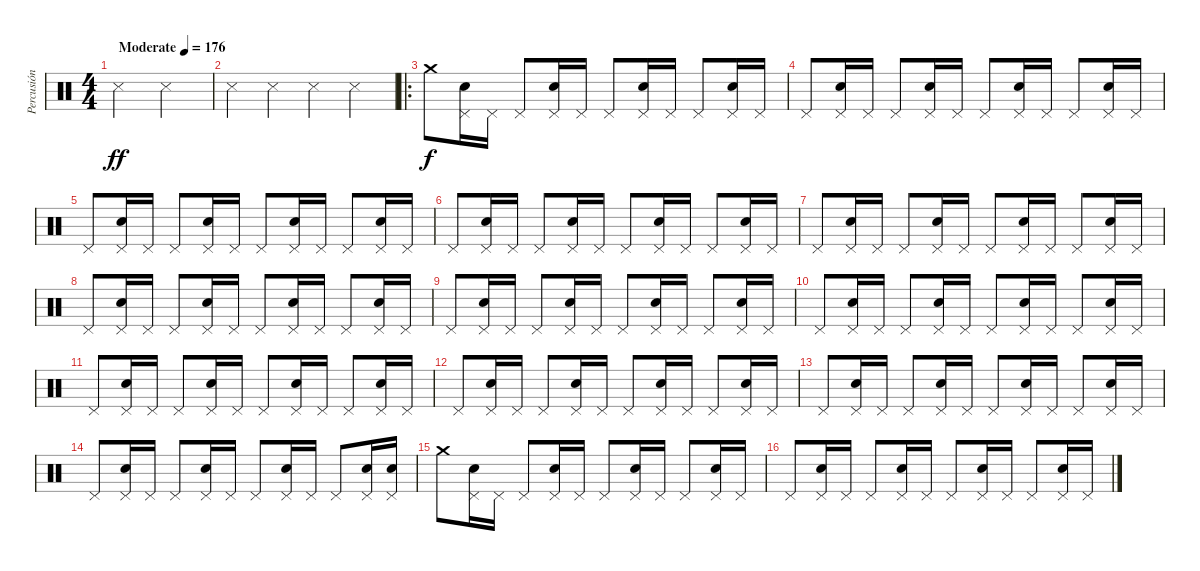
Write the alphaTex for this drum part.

\track ("Percusión" "Percusión") {instrument percussion}
\staff {score}
\articulation defaults
\ts (4 4)
\tempo (176 "Moderate")
\clef neutral
\ks c "Metronome (hit)".2{dy ff} "Metronome (hit)".2
|
"Metronome (hit)".4 "Metronome (hit)".4 "Metronome (hit)".4 "Metronome (hit)".4 |
\ro "Crash medium (hit)".8{dy f}
("Pedal Hi-Hat (hit)" "Snare (hit) 2").16 "Pedal Hi-Hat (hit)".16 "Pedal Hi-Hat (hit)".8 ("Pedal Hi-Hat (hit)" "Snare (hit) 2").16 "Pedal Hi-Hat (hit)".16 "Pedal Hi-Hat (hit)".8 ("Pedal Hi-Hat (hit)" "Snare (hit) 2").16 "Pedal Hi-Hat (hit)".16 "Pedal Hi-Hat (hit)".8 ("Pedal Hi-Hat (hit)" "Snare (hit) 2").16 "Pedal Hi-Hat (hit)".16 |
"Pedal Hi-Hat (hit)".8 ("Pedal Hi-Hat (hit)" "Snare (hit) 2").16 "Pedal Hi-Hat (hit)".16 "Pedal Hi-Hat (hit)".8 ("Pedal Hi-Hat (hit)" "Snare (hit) 2").16 "Pedal Hi-Hat (hit)".16 "Pedal Hi-Hat (hit)".8 ("Pedal Hi-Hat (hit)" "Snare (hit) 2").16 "Pedal Hi-Hat (hit)".16 "Pedal Hi-Hat (hit)".8 ("Pedal Hi-Hat (hit)" "Snare (hit) 2").16 "Pedal Hi-Hat (hit)".16 |
"Pedal Hi-Hat (hit)".8 ("Pedal Hi-Hat (hit)" "Snare (hit) 2").16 "Pedal Hi-Hat (hit)".16 "Pedal Hi-Hat (hit)".8 ("Pedal Hi-Hat (hit)" "Snare (hit) 2").16 "Pedal Hi-Hat (hit)".16 "Pedal Hi-Hat (hit)".8 ("Pedal Hi-Hat (hit)" "Snare (hit) 2").16 "Pedal Hi-Hat (hit)".16 "Pedal Hi-Hat (hit)".8 ("Pedal Hi-Hat (hit)" "Snare (hit) 2").16 "Pedal Hi-Hat (hit)".16 |
"Pedal Hi-Hat (hit)".8 ("Pedal Hi-Hat (hit)" "Snare (hit) 2").16 "Pedal Hi-Hat (hit)".16 "Pedal Hi-Hat (hit)".8 ("Pedal Hi-Hat (hit)" "Snare (hit) 2").16 "Pedal Hi-Hat (hit)".16 "Pedal Hi-Hat (hit)".8 ("Pedal Hi-Hat (hit)" "Snare (hit) 2").16 "Pedal Hi-Hat (hit)".16 "Pedal Hi-Hat (hit)".8 ("Pedal Hi-Hat (hit)" "Snare (hit) 2").16 "Pedal Hi-Hat (hit)".16 |
"Pedal Hi-Hat (hit)".8 ("Pedal Hi-Hat (hit)" "Snare (hit) 2").16 "Pedal Hi-Hat (hit)".16 "Pedal Hi-Hat (hit)".8 ("Pedal Hi-Hat (hit)" "Snare (hit) 2").16 "Pedal Hi-Hat (hit)".16 "Pedal Hi-Hat (hit)".8 ("Pedal Hi-Hat (hit)" "Snare (hit) 2").16 "Pedal Hi-Hat (hit)".16 "Pedal Hi-Hat (hit)".8 ("Pedal Hi-Hat (hit)" "Snare (hit) 2").16 "Pedal Hi-Hat (hit)".16 |
"Pedal Hi-Hat (hit)".8 ("Pedal Hi-Hat (hit)" "Snare (hit) 2").16 "Pedal Hi-Hat (hit)".16 "Pedal Hi-Hat (hit)".8 ("Pedal Hi-Hat (hit)" "Snare (hit) 2").16 "Pedal Hi-Hat (hit)".16 "Pedal Hi-Hat (hit)".8 ("Pedal Hi-Hat (hit)" "Snare (hit) 2").16 "Pedal Hi-Hat (hit)".16 "Pedal Hi-Hat (hit)".8 ("Pedal Hi-Hat (hit)" "Snare (hit) 2").16 "Pedal Hi-Hat (hit)".16 |
"Pedal Hi-Hat (hit)".8 ("Pedal Hi-Hat (hit)" "Snare (hit) 2").16 "Pedal Hi-Hat (hit)".16 "Pedal Hi-Hat (hit)".8 ("Pedal Hi-Hat (hit)" "Snare (hit) 2").16 "Pedal Hi-Hat (hit)".16 "Pedal Hi-Hat (hit)".8 ("Pedal Hi-Hat (hit)" "Snare (hit) 2").16 "Pedal Hi-Hat (hit)".16 "Pedal Hi-Hat (hit)".8 ("Pedal Hi-Hat (hit)" "Snare (hit) 2").16 "Pedal Hi-Hat (hit)".16 |
"Pedal Hi-Hat (hit)".8 ("Pedal Hi-Hat (hit)" "Snare (hit) 2").16 "Pedal Hi-Hat (hit)".16 "Pedal Hi-Hat (hit)".8 ("Pedal Hi-Hat (hit)" "Snare (hit) 2").16 "Pedal Hi-Hat (hit)".16 "Pedal Hi-Hat (hit)".8 ("Pedal Hi-Hat (hit)" "Snare (hit) 2").16 "Pedal Hi-Hat (hit)".16 "Pedal Hi-Hat (hit)".8 ("Pedal Hi-Hat (hit)" "Snare (hit) 2").16 "Pedal Hi-Hat (hit)".16 |
"Pedal Hi-Hat (hit)".8 ("Pedal Hi-Hat (hit)" "Snare (hit) 2").16 "Pedal Hi-Hat (hit)".16 "Pedal Hi-Hat (hit)".8 ("Pedal Hi-Hat (hit)" "Snare (hit) 2").16 "Pedal Hi-Hat (hit)".16 "Pedal Hi-Hat (hit)".8 ("Pedal Hi-Hat (hit)" "Snare (hit) 2").16 "Pedal Hi-Hat (hit)".16 "Pedal Hi-Hat (hit)".8 ("Pedal Hi-Hat (hit)" "Snare (hit) 2").16 "Pedal Hi-Hat (hit)".16 |
"Pedal Hi-Hat (hit)".8 ("Pedal Hi-Hat (hit)" "Snare (hit) 2").16 "Pedal Hi-Hat (hit)".16 "Pedal Hi-Hat (hit)".8 ("Pedal Hi-Hat (hit)" "Snare (hit) 2").16 "Pedal Hi-Hat (hit)".16 "Pedal Hi-Hat (hit)".8 ("Pedal Hi-Hat (hit)" "Snare (hit) 2").16 "Pedal Hi-Hat (hit)".16 "Pedal Hi-Hat (hit)".8 ("Pedal Hi-Hat (hit)" "Snare (hit) 2").16 "Pedal Hi-Hat (hit)".16 |
"Pedal Hi-Hat (hit)".8 ("Pedal Hi-Hat (hit)" "Snare (hit) 2").16 "Pedal Hi-Hat (hit)".16 "Pedal Hi-Hat (hit)".8 ("Pedal Hi-Hat (hit)" "Snare (hit) 2").16 "Pedal Hi-Hat (hit)".16 "Pedal Hi-Hat (hit)".8 ("Pedal Hi-Hat (hit)" "Snare (hit) 2").16 "Pedal Hi-Hat (hit)".16 "Pedal Hi-Hat (hit)".8 ("Pedal Hi-Hat (hit)" "Snare (hit) 2").16 "Pedal Hi-Hat (hit)".16 |
"Pedal Hi-Hat (hit)".8 ("Pedal Hi-Hat (hit)" "Snare (hit) 2").16 "Pedal Hi-Hat (hit)".16 "Pedal Hi-Hat (hit)".8 ("Pedal Hi-Hat (hit)" "Snare (hit) 2").16 "Pedal Hi-Hat (hit)".16 "Pedal Hi-Hat (hit)".8 ("Pedal Hi-Hat (hit)" "Snare (hit) 2").16 "Pedal Hi-Hat (hit)".16 "Pedal Hi-Hat (hit)".8 ("Pedal Hi-Hat (hit)" "Snare (hit) 2").16 ("Pedal Hi-Hat (hit)" "Snare (hit) 2").16 |
"Crash medium (hit)".8 ("Pedal Hi-Hat (hit)" "Snare (hit) 2").16 "Pedal Hi-Hat (hit)".16 "Pedal Hi-Hat (hit)".8 ("Pedal Hi-Hat (hit)" "Snare (hit) 2").16 "Pedal Hi-Hat (hit)".16 "Pedal Hi-Hat (hit)".8 ("Pedal Hi-Hat (hit)" "Snare (hit) 2").16 "Pedal Hi-Hat (hit)".16 "Pedal Hi-Hat (hit)".8 ("Pedal Hi-Hat (hit)" "Snare (hit) 2").16 "Pedal Hi-Hat (hit)".16 |
"Pedal Hi-Hat (hit)".8 ("Pedal Hi-Hat (hit)" "Snare (hit) 2").16 "Pedal Hi-Hat (hit)".16 "Pedal Hi-Hat (hit)".8 ("Pedal Hi-Hat (hit)" "Snare (hit) 2").16 "Pedal Hi-Hat (hit)".16 "Pedal Hi-Hat (hit)".8 ("Pedal Hi-Hat (hit)" "Snare (hit) 2").16 "Pedal Hi-Hat (hit)".16 "Pedal Hi-Hat (hit)".8 ("Pedal Hi-Hat (hit)" "Snare (hit) 2").16 "Pedal Hi-Hat (hit)".16
